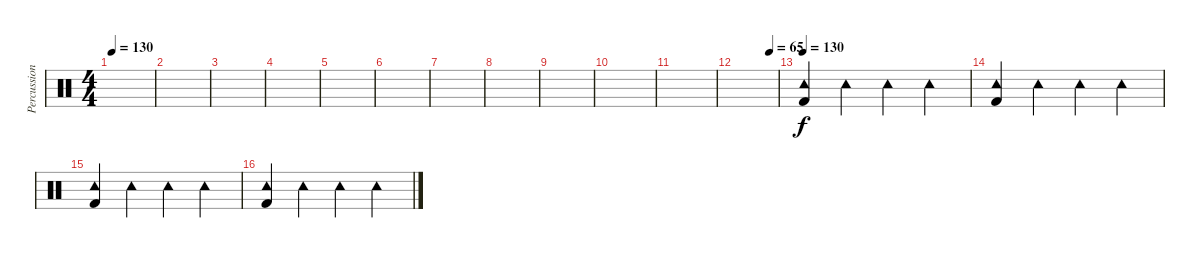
\track ("Percussioni" "Percussion") {instrument percussion}
\staff {score}
\articulation defaults
\ts (4 4)
\tempo 130
\clef neutral
\ks c
|
|
|
|
|
|
|
|
|
|
|
\tempo (65 0.8125)
|
\tempo 130
("Tambourine (hit)" "Kick (hit) 2").4 "Tambourine (hit)".4 "Tambourine (hit)".4 "Tambourine (hit)".4 |
("Tambourine (hit)" "Kick (hit) 2").4 "Tambourine (hit)".4 "Tambourine (hit)".4 "Tambourine (hit)".4 |
("Tambourine (hit)" "Kick (hit) 2").4 "Tambourine (hit)".4 "Tambourine (hit)".4 "Tambourine (hit)".4 |
("Tambourine (hit)" "Kick (hit) 2").4 "Tambourine (hit)".4 "Tambourine (hit)".4 "Tambourine (hit)".4
